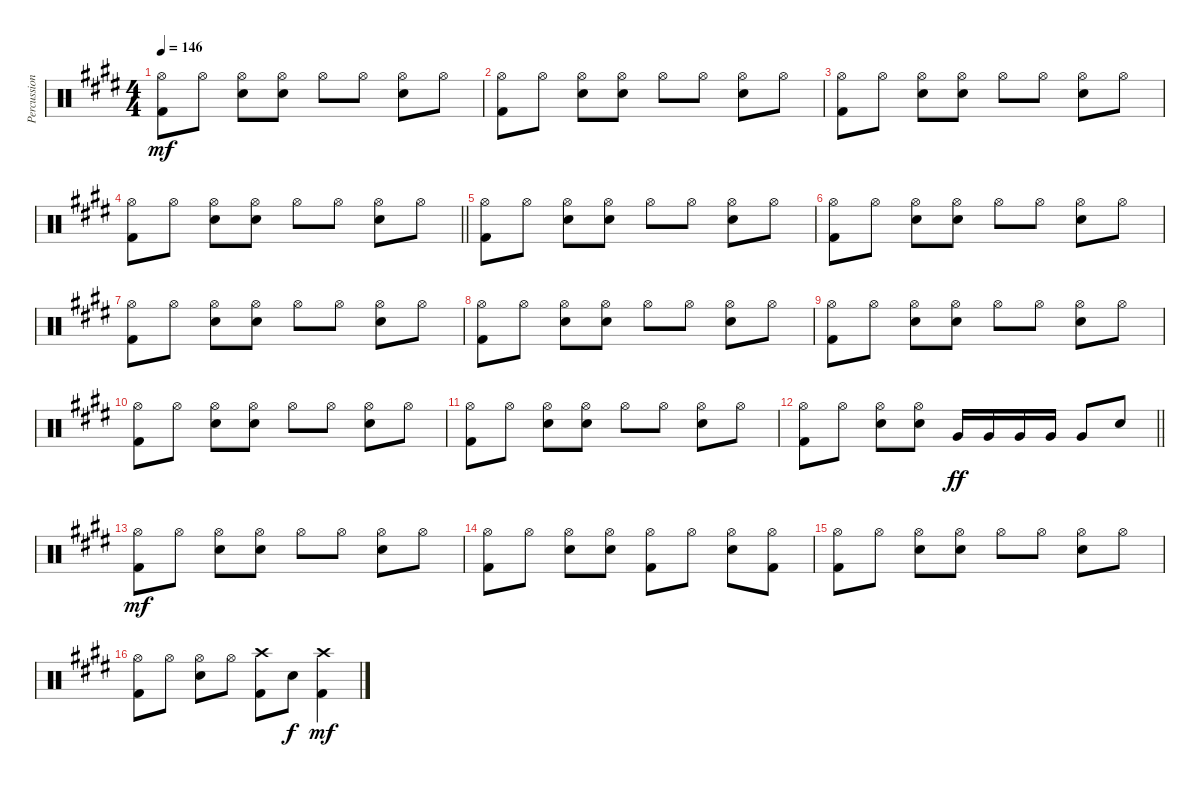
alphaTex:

\track ("Percussion" "Percussion") {instrument percussion}
\staff {score}
\articulation defaults
\ts (4 4)
\tempo 146
\clef neutral
\ks e
("Hi-Hat (open)" "Kick (hit) 2").8{dy mf} "Hi-Hat (open)".8 ("Hi-Hat (open)" "Snare (hit) 2").8 ("Hi-Hat (open)" "Snare (hit) 2").8 "Hi-Hat (open)".8 "Hi-Hat (open)".8 ("Hi-Hat (open)" "Snare (hit) 2").8 "Hi-Hat (open)".8 |
("Hi-Hat (open)" "Kick (hit) 2").8 "Hi-Hat (open)".8 ("Hi-Hat (open)" "Snare (hit) 2").8 ("Hi-Hat (open)" "Snare (hit) 2").8 "Hi-Hat (open)".8 "Hi-Hat (open)".8 ("Hi-Hat (open)" "Snare (hit) 2").8 "Hi-Hat (open)".8 |
("Hi-Hat (open)" "Kick (hit) 2").8 "Hi-Hat (open)".8 ("Hi-Hat (open)" "Snare (hit) 2").8 ("Hi-Hat (open)" "Snare (hit) 2").8 "Hi-Hat (open)".8 "Hi-Hat (open)".8 ("Hi-Hat (open)" "Snare (hit) 2").8 "Hi-Hat (open)".8 |
\barLineRight lightlight
("Hi-Hat (open)" "Kick (hit) 2").8 "Hi-Hat (open)".8 ("Hi-Hat (open)" "Snare (hit) 2").8 ("Hi-Hat (open)" "Snare (hit) 2").8 "Hi-Hat (open)".8 "Hi-Hat (open)".8 ("Hi-Hat (open)" "Snare (hit) 2").8 "Hi-Hat (open)".8 |
("Hi-Hat (open)" "Kick (hit) 2").8 "Hi-Hat (open)".8 ("Hi-Hat (open)" "Snare (hit) 2").8 ("Hi-Hat (open)" "Snare (hit) 2").8 "Hi-Hat (open)".8 "Hi-Hat (open)".8 ("Hi-Hat (open)" "Snare (hit) 2").8 "Hi-Hat (open)".8 |
("Hi-Hat (open)" "Kick (hit) 2").8 "Hi-Hat (open)".8 ("Hi-Hat (open)" "Snare (hit) 2").8 ("Hi-Hat (open)" "Snare (hit) 2").8 "Hi-Hat (open)".8 "Hi-Hat (open)".8 ("Hi-Hat (open)" "Snare (hit) 2").8 "Hi-Hat (open)".8 |
("Hi-Hat (open)" "Kick (hit) 2").8 "Hi-Hat (open)".8 ("Hi-Hat (open)" "Snare (hit) 2").8 ("Hi-Hat (open)" "Snare (hit) 2").8 "Hi-Hat (open)".8 "Hi-Hat (open)".8 ("Hi-Hat (open)" "Snare (hit) 2").8 "Hi-Hat (open)".8 |
("Hi-Hat (open)" "Kick (hit) 2").8 "Hi-Hat (open)".8 ("Hi-Hat (open)" "Snare (hit) 2").8 ("Hi-Hat (open)" "Snare (hit) 2").8 "Hi-Hat (open)".8 "Hi-Hat (open)".8 ("Hi-Hat (open)" "Snare (hit) 2").8 "Hi-Hat (open)".8 |
("Hi-Hat (open)" "Kick (hit) 2").8 "Hi-Hat (open)".8 ("Hi-Hat (open)" "Snare (hit) 2").8 ("Hi-Hat (open)" "Snare (hit) 2").8 "Hi-Hat (open)".8 "Hi-Hat (open)".8 ("Hi-Hat (open)" "Snare (hit) 2").8 "Hi-Hat (open)".8 |
("Hi-Hat (open)" "Kick (hit) 2").8 "Hi-Hat (open)".8 ("Hi-Hat (open)" "Snare (hit) 2").8 ("Hi-Hat (open)" "Snare (hit) 2").8 "Hi-Hat (open)".8 "Hi-Hat (open)".8 ("Hi-Hat (open)" "Snare (hit) 2").8 "Hi-Hat (open)".8 |
("Hi-Hat (open)" "Kick (hit) 2").8 "Hi-Hat (open)".8 ("Hi-Hat (open)" "Snare (hit) 2").8 ("Hi-Hat (open)" "Snare (hit) 2").8 "Hi-Hat (open)".8 "Hi-Hat (open)".8 ("Hi-Hat (open)" "Snare (hit) 2").8 "Hi-Hat (open)".8 |
\barLineRight lightlight
("Hi-Hat (open)" "Kick (hit) 2").8 "Hi-Hat (open)".8 ("Hi-Hat (open)" "Snare (hit) 2").8 ("Hi-Hat (open)" "Snare (hit) 2").8 "Very Low Tom (hit)".16{dy ff} "Very Low Tom (hit)".16 "Very Low Tom (hit)".16 "Very Low Tom (hit)".16 "Very Low Tom (hit)".8 "Snare (hit) 2".8 |
("Hi-Hat (open)" "Kick (hit) 2").8{dy mf} "Hi-Hat (open)".8 ("Hi-Hat (open)" "Snare (hit) 2").8 ("Hi-Hat (open)" "Snare (hit) 2").8 "Hi-Hat (open)".8 "Hi-Hat (open)".8 ("Hi-Hat (open)" "Snare (hit) 2").8 "Hi-Hat (open)".8 |
("Hi-Hat (open)" "Kick (hit) 2").8 "Hi-Hat (open)".8 ("Hi-Hat (open)" "Snare (hit) 2").8 ("Hi-Hat (open)" "Snare (hit) 2").8 ("Hi-Hat (open)" "Kick (hit) 2").8 "Hi-Hat (open)".8 ("Hi-Hat (open)" "Snare (hit) 2").8 ("Hi-Hat (open)" "Kick (hit) 2").8 |
("Hi-Hat (open)" "Kick (hit) 2").8 "Hi-Hat (open)".8 ("Hi-Hat (open)" "Snare (hit) 2").8 ("Hi-Hat (open)" "Snare (hit) 2").8 "Hi-Hat (open)".8 "Hi-Hat (open)".8 ("Hi-Hat (open)" "Snare (hit) 2").8 "Hi-Hat (open)".8 |
("Hi-Hat (open)" "Kick (hit) 2").8 "Hi-Hat (open)".8 ("Hi-Hat (open)" "Snare (hit) 2").8 "Hi-Hat (open)".8 ("Crash high (hit)" "Kick (hit) 2").8 "Snare (hit) 2".8{dy f} ("Crash high (hit)" "Kick (hit) 2").4{dy mf}
